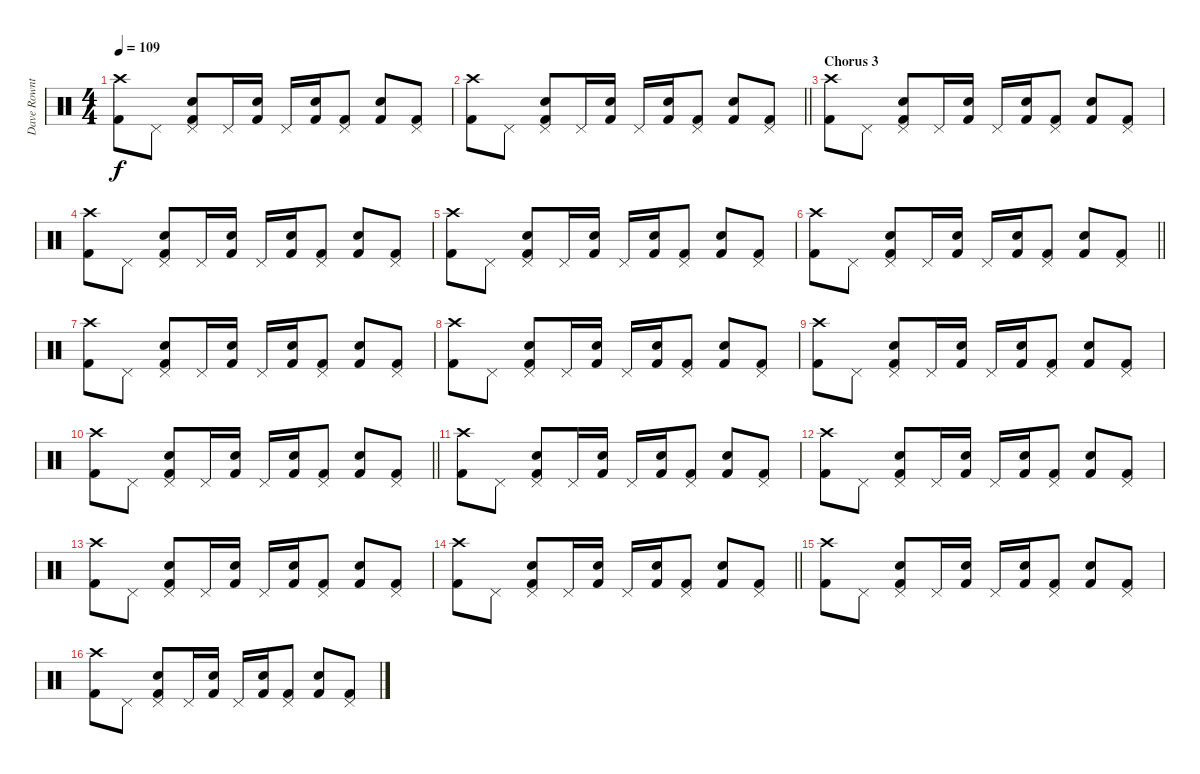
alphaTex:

\track ("Dave Rowntree - Drums" "Dave Rownt") {instrument percussion}
\staff {score}
\articulation defaults
\ts (4 4)
\tempo 109
\clef neutral
\ks c
("Kick (hit) 2" "Crash high (hit)").8{dy f} "Pedal Hi-Hat (hit)".8 ("Kick (hit) 2" "Pedal Hi-Hat (hit)" "Electric Snare (hit)").8 "Pedal Hi-Hat (hit)".16 ("Kick (hit) 2" "Electric Snare (hit)").16 "Pedal Hi-Hat (hit)".16 ("Kick (hit) 2" "Electric Snare (hit)").16 ("Kick (hit) 2" "Pedal Hi-Hat (hit)").8 ("Kick (hit) 2" "Electric Snare (hit)").8 ("Kick (hit) 2" "Pedal Hi-Hat (hit)").8 |
\barLineRight lightlight
("Kick (hit) 2" "Crash high (hit)").8 "Pedal Hi-Hat (hit)".8 ("Kick (hit) 2" "Pedal Hi-Hat (hit)" "Electric Snare (hit)").8 "Pedal Hi-Hat (hit)".16 ("Kick (hit) 2" "Electric Snare (hit)").16 "Pedal Hi-Hat (hit)".16 ("Kick (hit) 2" "Electric Snare (hit)").16 ("Kick (hit) 2" "Pedal Hi-Hat (hit)").8 ("Kick (hit) 2" "Electric Snare (hit)").8 ("Kick (hit) 2" "Pedal Hi-Hat (hit)").8 |
\section ("" "Chorus 3")
("Kick (hit) 2" "Crash high (hit)").8 "Pedal Hi-Hat (hit)".8 ("Kick (hit) 2" "Pedal Hi-Hat (hit)" "Electric Snare (hit)").8 "Pedal Hi-Hat (hit)".16 ("Kick (hit) 2" "Electric Snare (hit)").16 "Pedal Hi-Hat (hit)".16 ("Kick (hit) 2" "Electric Snare (hit)").16 ("Kick (hit) 2" "Pedal Hi-Hat (hit)").8 ("Kick (hit) 2" "Electric Snare (hit)").8 ("Kick (hit) 2" "Pedal Hi-Hat (hit)").8 |
("Kick (hit) 2" "Crash high (hit)").8 "Pedal Hi-Hat (hit)".8 ("Kick (hit) 2" "Pedal Hi-Hat (hit)" "Electric Snare (hit)").8 "Pedal Hi-Hat (hit)".16 ("Kick (hit) 2" "Electric Snare (hit)").16 "Pedal Hi-Hat (hit)".16 ("Kick (hit) 2" "Electric Snare (hit)").16 ("Kick (hit) 2" "Pedal Hi-Hat (hit)").8 ("Kick (hit) 2" "Electric Snare (hit)").8 ("Kick (hit) 2" "Pedal Hi-Hat (hit)").8 |
("Kick (hit) 2" "Crash high (hit)").8 "Pedal Hi-Hat (hit)".8 ("Kick (hit) 2" "Pedal Hi-Hat (hit)" "Electric Snare (hit)").8 "Pedal Hi-Hat (hit)".16 ("Kick (hit) 2" "Electric Snare (hit)").16 "Pedal Hi-Hat (hit)".16 ("Kick (hit) 2" "Electric Snare (hit)").16 ("Kick (hit) 2" "Pedal Hi-Hat (hit)").8 ("Kick (hit) 2" "Electric Snare (hit)").8 ("Kick (hit) 2" "Pedal Hi-Hat (hit)").8 |
\barLineRight lightlight
("Kick (hit) 2" "Crash high (hit)").8 "Pedal Hi-Hat (hit)".8 ("Kick (hit) 2" "Pedal Hi-Hat (hit)" "Electric Snare (hit)").8 "Pedal Hi-Hat (hit)".16 ("Kick (hit) 2" "Electric Snare (hit)").16 "Pedal Hi-Hat (hit)".16 ("Kick (hit) 2" "Electric Snare (hit)").16 ("Kick (hit) 2" "Pedal Hi-Hat (hit)").8 ("Kick (hit) 2" "Electric Snare (hit)").8 ("Kick (hit) 2" "Pedal Hi-Hat (hit)").8 |
("Kick (hit) 2" "Crash high (hit)").8 "Pedal Hi-Hat (hit)".8 ("Kick (hit) 2" "Pedal Hi-Hat (hit)" "Electric Snare (hit)").8 "Pedal Hi-Hat (hit)".16 ("Kick (hit) 2" "Electric Snare (hit)").16 "Pedal Hi-Hat (hit)".16 ("Kick (hit) 2" "Electric Snare (hit)").16 ("Kick (hit) 2" "Pedal Hi-Hat (hit)").8 ("Kick (hit) 2" "Electric Snare (hit)").8 ("Kick (hit) 2" "Pedal Hi-Hat (hit)").8 |
("Kick (hit) 2" "Crash high (hit)").8 "Pedal Hi-Hat (hit)".8 ("Kick (hit) 2" "Pedal Hi-Hat (hit)" "Electric Snare (hit)").8 "Pedal Hi-Hat (hit)".16 ("Kick (hit) 2" "Electric Snare (hit)").16 "Pedal Hi-Hat (hit)".16 ("Kick (hit) 2" "Electric Snare (hit)").16 ("Kick (hit) 2" "Pedal Hi-Hat (hit)").8 ("Kick (hit) 2" "Electric Snare (hit)").8 ("Kick (hit) 2" "Pedal Hi-Hat (hit)").8 |
("Kick (hit) 2" "Crash high (hit)").8 "Pedal Hi-Hat (hit)".8 ("Kick (hit) 2" "Pedal Hi-Hat (hit)" "Electric Snare (hit)").8 "Pedal Hi-Hat (hit)".16 ("Kick (hit) 2" "Electric Snare (hit)").16 "Pedal Hi-Hat (hit)".16 ("Kick (hit) 2" "Electric Snare (hit)").16 ("Kick (hit) 2" "Pedal Hi-Hat (hit)").8 ("Kick (hit) 2" "Electric Snare (hit)").8 ("Kick (hit) 2" "Pedal Hi-Hat (hit)").8 |
\barLineRight lightlight
("Kick (hit) 2" "Crash high (hit)").8 "Pedal Hi-Hat (hit)".8 ("Kick (hit) 2" "Pedal Hi-Hat (hit)" "Electric Snare (hit)").8 "Pedal Hi-Hat (hit)".16 ("Kick (hit) 2" "Electric Snare (hit)").16 "Pedal Hi-Hat (hit)".16 ("Kick (hit) 2" "Electric Snare (hit)").16 ("Kick (hit) 2" "Pedal Hi-Hat (hit)").8 ("Kick (hit) 2" "Electric Snare (hit)").8 ("Kick (hit) 2" "Pedal Hi-Hat (hit)").8 |
("Kick (hit) 2" "Crash high (hit)").8 "Pedal Hi-Hat (hit)".8 ("Kick (hit) 2" "Pedal Hi-Hat (hit)" "Electric Snare (hit)").8 "Pedal Hi-Hat (hit)".16 ("Kick (hit) 2" "Electric Snare (hit)").16 "Pedal Hi-Hat (hit)".16 ("Kick (hit) 2" "Electric Snare (hit)").16 ("Kick (hit) 2" "Pedal Hi-Hat (hit)").8 ("Kick (hit) 2" "Electric Snare (hit)").8 ("Kick (hit) 2" "Pedal Hi-Hat (hit)").8 |
("Kick (hit) 2" "Crash high (hit)").8 "Pedal Hi-Hat (hit)".8 ("Kick (hit) 2" "Pedal Hi-Hat (hit)" "Electric Snare (hit)").8 "Pedal Hi-Hat (hit)".16 ("Kick (hit) 2" "Electric Snare (hit)").16 "Pedal Hi-Hat (hit)".16 ("Kick (hit) 2" "Electric Snare (hit)").16 ("Kick (hit) 2" "Pedal Hi-Hat (hit)").8 ("Kick (hit) 2" "Electric Snare (hit)").8 ("Kick (hit) 2" "Pedal Hi-Hat (hit)").8 |
("Kick (hit) 2" "Crash high (hit)").8 "Pedal Hi-Hat (hit)".8 ("Kick (hit) 2" "Pedal Hi-Hat (hit)" "Electric Snare (hit)").8 "Pedal Hi-Hat (hit)".16 ("Kick (hit) 2" "Electric Snare (hit)").16 "Pedal Hi-Hat (hit)".16 ("Kick (hit) 2" "Electric Snare (hit)").16 ("Kick (hit) 2" "Pedal Hi-Hat (hit)").8 ("Kick (hit) 2" "Electric Snare (hit)").8 ("Kick (hit) 2" "Pedal Hi-Hat (hit)").8 |
\barLineRight lightlight
("Kick (hit) 2" "Crash high (hit)").8 "Pedal Hi-Hat (hit)".8 ("Kick (hit) 2" "Pedal Hi-Hat (hit)" "Electric Snare (hit)").8 "Pedal Hi-Hat (hit)".16 ("Kick (hit) 2" "Electric Snare (hit)").16 "Pedal Hi-Hat (hit)".16 ("Kick (hit) 2" "Electric Snare (hit)").16 ("Kick (hit) 2" "Pedal Hi-Hat (hit)").8 ("Kick (hit) 2" "Electric Snare (hit)").8 ("Kick (hit) 2" "Pedal Hi-Hat (hit)").8 |
("Kick (hit) 2" "Crash high (hit)").8 "Pedal Hi-Hat (hit)".8 ("Kick (hit) 2" "Pedal Hi-Hat (hit)" "Electric Snare (hit)").8 "Pedal Hi-Hat (hit)".16 ("Kick (hit) 2" "Electric Snare (hit)").16 "Pedal Hi-Hat (hit)".16 ("Kick (hit) 2" "Electric Snare (hit)").16 ("Kick (hit) 2" "Pedal Hi-Hat (hit)").8 ("Kick (hit) 2" "Electric Snare (hit)").8 ("Kick (hit) 2" "Pedal Hi-Hat (hit)").8 |
("Kick (hit) 2" "Crash high (hit)").8 "Pedal Hi-Hat (hit)".8 ("Kick (hit) 2" "Pedal Hi-Hat (hit)" "Electric Snare (hit)").8 "Pedal Hi-Hat (hit)".16 ("Kick (hit) 2" "Electric Snare (hit)").16 "Pedal Hi-Hat (hit)".16 ("Kick (hit) 2" "Electric Snare (hit)").16 ("Kick (hit) 2" "Pedal Hi-Hat (hit)").8 ("Kick (hit) 2" "Electric Snare (hit)").8 ("Kick (hit) 2" "Pedal Hi-Hat (hit)").8
